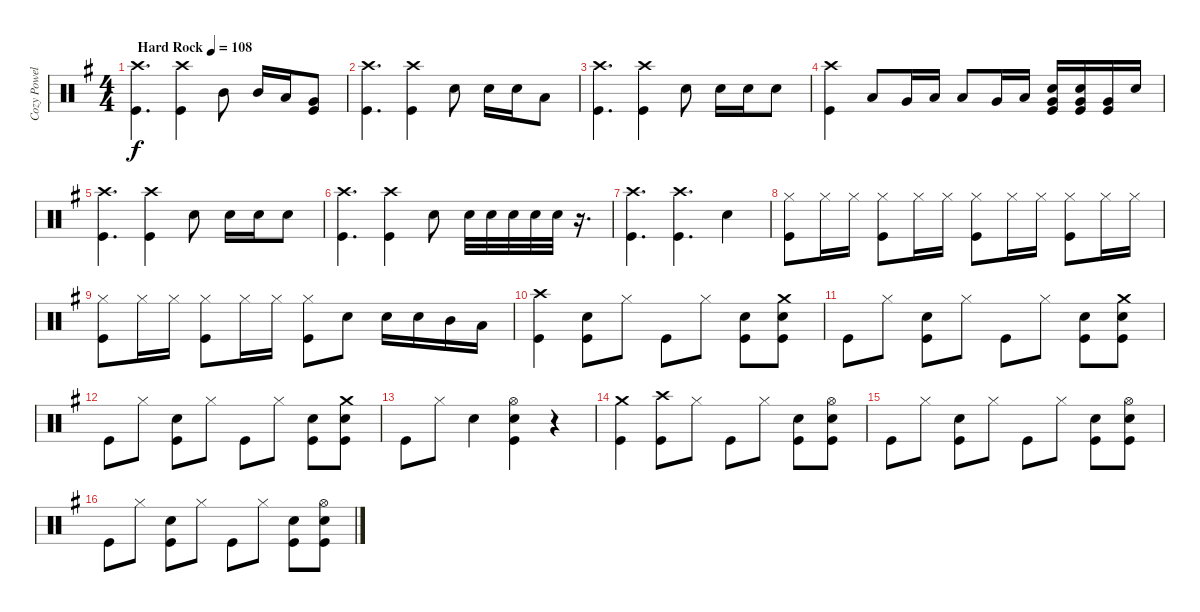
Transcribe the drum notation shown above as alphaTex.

\track ("Cozy Powell Drums" "Cozy Powel") {instrument percussion}
\staff {score}
\articulation defaults
\ts (4 4)
\tempo (108 "Hard Rock")
\clef neutral
\ks g
("Crash high (hit)" "Kick (hit)").4{d dy f} ("Crash high (hit)" "Kick (hit)").4 "Mid Tom (hit)".8 "Mid Tom (hit)".16 "Low Tom (hit)".16 ("Very Low Tom (hit)" "Kick (hit)").8 |
("Crash high (hit)" "Kick (hit)").4{d} ("Crash high (hit)" "Kick (hit)").4 "Snare (hit) 2".8 "Snare (hit) 2".16 "Snare (hit) 2".16 "Low Tom (hit)".8 |
("Crash high (hit)" "Kick (hit)").4{d} ("Crash high (hit)" "Kick (hit)").4 "Snare (hit) 2".8 "Snare (hit) 2".16 "Snare (hit) 2".16 "Snare (hit) 2".8 |
("Crash high (hit)" "Kick (hit)").4 "Low Tom (hit)".8 "Very Low Tom (hit)".16 "Low Floor Tom (hit)".16 "Low Tom (hit)".8 "Very Low Tom (hit)".16 "Low Floor Tom (hit)".16 ("Snare (hit) 2" "Very Low Tom (hit)" "Kick (hit)").16 ("Snare (hit) 2" "Very Low Tom (hit)" "Kick (hit)").16 ("Very Low Tom (hit)" "Kick (hit)").16 "Snare (hit) 2".16 |
("Crash high (hit)" "Kick (hit)").4{d} ("Crash high (hit)" "Kick (hit)").4 "Snare (hit) 2".8 "Snare (hit) 2".16 "Snare (hit) 2".16 "Snare (hit) 2".8 |
("Crash high (hit)" "Kick (hit)").4{d} ("Crash high (hit)" "Kick (hit)").4 "Snare (hit) 2".8 "Snare (hit) 2".32 "Snare (hit) 2".32 "Snare (hit) 2".32 "Snare (hit) 2".32 "Snare (hit) 2".32 r.16{d} |
("Crash high (hit)" "Kick (hit)").4{d} ("Crash high (hit)" "Kick (hit)").4{d} "Snare (hit) 2".4 |
("Hi-Hat (closed)" "Kick (hit)").8 "Hi-Hat (closed)".16 "Hi-Hat (closed)".16 ("Hi-Hat (closed)" "Kick (hit)").8 "Hi-Hat (closed)".16 "Hi-Hat (closed)".16 ("Hi-Hat (closed)" "Kick (hit)").8 "Hi-Hat (closed)".16 "Hi-Hat (closed)".16 ("Hi-Hat (closed)" "Kick (hit)").8 "Hi-Hat (closed)".16 "Hi-Hat (closed)".16 |
("Hi-Hat (closed)" "Kick (hit)").8 "Hi-Hat (closed)".16 "Hi-Hat (closed)".16 ("Hi-Hat (closed)" "Kick (hit)").8 "Hi-Hat (closed)".16 "Hi-Hat (closed)".16 ("Hi-Hat (closed)" "Kick (hit)").8 "Snare (hit) 2".8 "Snare (hit) 2".16 "Snare (hit) 2".16 "Mid Tom (hit)".16 "Low Tom (hit)".16 |
("Crash high (hit)" "Kick (hit)").4 ("Snare (hit) 2" "Kick (hit)").8 "Hi-Hat (closed)".8 "Kick (hit)".8 "Hi-Hat (closed)".8 ("Snare (hit) 2" "Kick (hit)").8 ("Crash medium (hit)" "Snare (hit) 2" "Kick (hit)").8 |
"Kick (hit)".8 "Hi-Hat (closed)".8 ("Snare (hit) 2" "Kick (hit)").8 "Hi-Hat (closed)".8 "Kick (hit)".8 "Hi-Hat (closed)".8 ("Snare (hit) 2" "Kick (hit)").8 ("Crash medium (hit)" "Snare (hit) 2" "Kick (hit)").8 |
"Kick (hit)".8 "Hi-Hat (closed)".8 ("Snare (hit) 2" "Kick (hit)").8 "Hi-Hat (closed)".8 "Kick (hit)".8 "Hi-Hat (closed)".8 ("Snare (hit) 2" "Kick (hit)").8 ("Crash medium (hit)" "Snare (hit) 2" "Kick (hit)").8 |
"Kick (hit)".8 "Hi-Hat (closed)".8 "Snare (hit) 2".4 ("Hi-Hat (open)" "Snare (hit) 2" "Kick (hit)").4 r.4 |
("Crash medium (hit)" "Kick (hit)").4 ("Crash high (hit)" "Kick (hit)").8 "Hi-Hat (closed)".8 "Kick (hit)".8 "Hi-Hat (closed)".8 ("Snare (hit) 2" "Kick (hit)").8 ("Hi-Hat (open)" "Snare (hit) 2" "Kick (hit)").8 |
"Kick (hit)".8 "Hi-Hat (closed)".8 ("Snare (hit) 2" "Kick (hit)").8 "Hi-Hat (closed)".8 "Kick (hit)".8 "Hi-Hat (closed)".8 ("Snare (hit) 2" "Kick (hit)").8 ("Hi-Hat (open)" "Snare (hit) 2" "Kick (hit)").8 |
"Kick (hit)".8 "Hi-Hat (closed)".8 ("Snare (hit) 2" "Kick (hit)").8 "Hi-Hat (closed)".8 "Kick (hit)".8 "Hi-Hat (closed)".8 ("Snare (hit) 2" "Kick (hit)").8 ("Hi-Hat (open)" "Snare (hit) 2" "Kick (hit)").8
